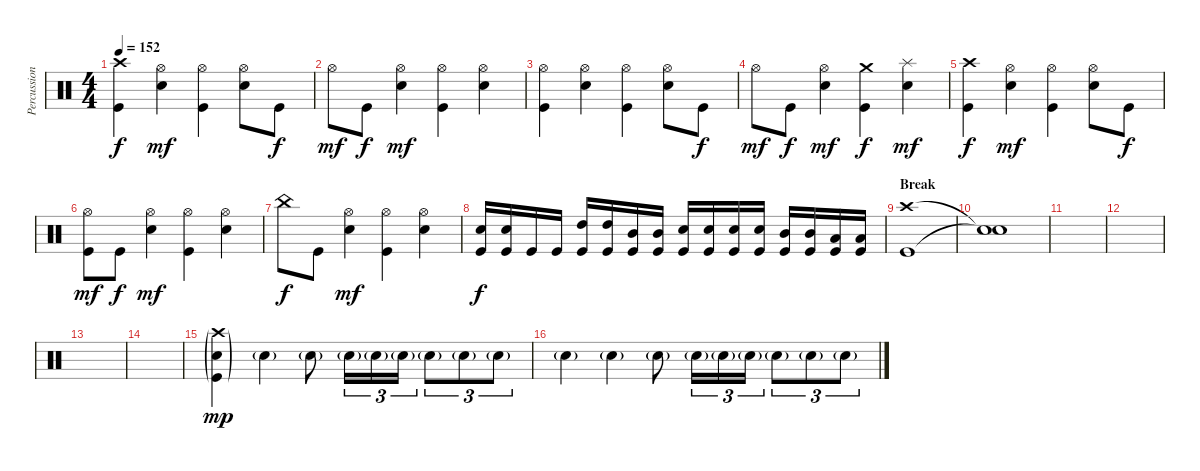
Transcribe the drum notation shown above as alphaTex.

\track ("Percussion" "Percussion") {instrument percussion}
\staff {score}
\articulation defaults
\ts (4 4)
\tempo 152
\clef neutral
\ks c
("Crash high (hit)" "Kick (hit)").4{dy f} ("Hi-Hat (open)" "Snare (hit) 2").4{dy mf} ("Hi-Hat (open)" "Kick (hit)").4 ("Hi-Hat (open)" "Snare (hit) 2").8 "Kick (hit)".8{dy f} |
"Hi-Hat (open)".8{dy mf} "Kick (hit)".8{dy f} ("Hi-Hat (open)" "Snare (hit) 2").4{dy mf} ("Hi-Hat (open)" "Kick (hit)").4 ("Hi-Hat (open)" "Snare (hit) 2").4 |
("Hi-Hat (open)" "Kick (hit)").4 ("Hi-Hat (open)" "Snare (hit) 2").4 ("Hi-Hat (open)" "Kick (hit)").4 ("Hi-Hat (open)" "Snare (hit) 2").8 "Kick (hit)".8{dy f} |
"Hi-Hat (open)".8{dy mf} "Kick (hit)".8{dy f} ("Hi-Hat (open)" "Snare (hit) 2").4{dy mf} ("Crash medium (hit)" "Kick (hit)").4{dy f} ("Splash (hit)" "Snare (hit) 2").4{dy mf} |
("Crash high (hit)" "Kick (hit)").4{dy f} ("Hi-Hat (open)" "Snare (hit) 2").4{dy mf} ("Hi-Hat (open)" "Kick (hit)").4 ("Hi-Hat (open)" "Snare (hit) 2").8 "Kick (hit)".8{dy f} |
("Hi-Hat (open)" "Kick (hit)").8{dy mf} "Kick (hit)".8{dy f} ("Hi-Hat (open)" "Snare (hit) 2").4{dy mf} ("Hi-Hat (open)" "Kick (hit)").4 ("Hi-Hat (open)" "Snare (hit) 2").4 |
"China (hit)".8{dy f} "Kick (hit)".8 ("Hi-Hat (open)" "Snare (hit) 2").4{dy mf} ("Hi-Hat (open)" "Kick (hit)").4 ("Hi-Hat (open)" "Snare (hit) 2").4 |
("Snare (hit) 2" "Kick (hit)").16{dy f} ("Snare (hit) 2" "Kick (hit)").16 "Kick (hit)".16 "Kick (hit)".16 ("High Tom (hit)" "Kick (hit)").16 ("High Tom (hit)" "Kick (hit)").16 ("Mid Tom (hit)" "Kick (hit)").16 ("Mid Tom (hit)" "Kick (hit)").16 ("Snare (hit) 2" "Kick (hit)").16 ("Snare (hit) 2" "Kick (hit)").16 ("Snare (hit) 2" "Kick (hit)").16 ("Snare (hit) 2" "Kick (hit)").16 ("Mid Tom (hit)" "Kick (hit)").16 ("Mid Tom (hit)" "Kick (hit)").16 ("Low Tom (hit)" "Kick (hit)").16 ("Low Tom (hit)" "Kick (hit)").16 |
\section ("" "Break")
("Crash high (hit)" "Kick (hit)").1 |
("Snare (hit)"{t} "Snare (hit)"{t}).1 |
|
|
|
|
("Crash high (hit)"{g} "Snare (hit) 2"{g} "Kick (hit)"{g}).4{dy mp} "Snare (hit) 2"{g}.4 "Snare (hit) 2"{g}.8 "Snare (hit) 2"{g}.16{tu (3 2)} "Snare (hit) 2"{g}.16{tu (3 2)} "Snare (hit) 2"{g}.16{tu (3 2)} "Snare (hit) 2"{g}.8{tu (3 2)} "Snare (hit) 2"{g}.8{tu (3 2)} "Snare (hit) 2"{g}.8{tu (3 2)} |
"Snare (hit) 2"{g}.4 "Snare (hit) 2"{g}.4 "Snare (hit) 2"{g}.8 "Snare (hit) 2"{g}.16{tu (3 2)} "Snare (hit) 2"{g}.16{tu (3 2)} "Snare (hit) 2"{g}.16{tu (3 2)} "Snare (hit) 2"{g}.8{tu (3 2)} "Snare (hit) 2"{g}.8{tu (3 2)} "Snare (hit) 2"{g}.8{tu (3 2)}
